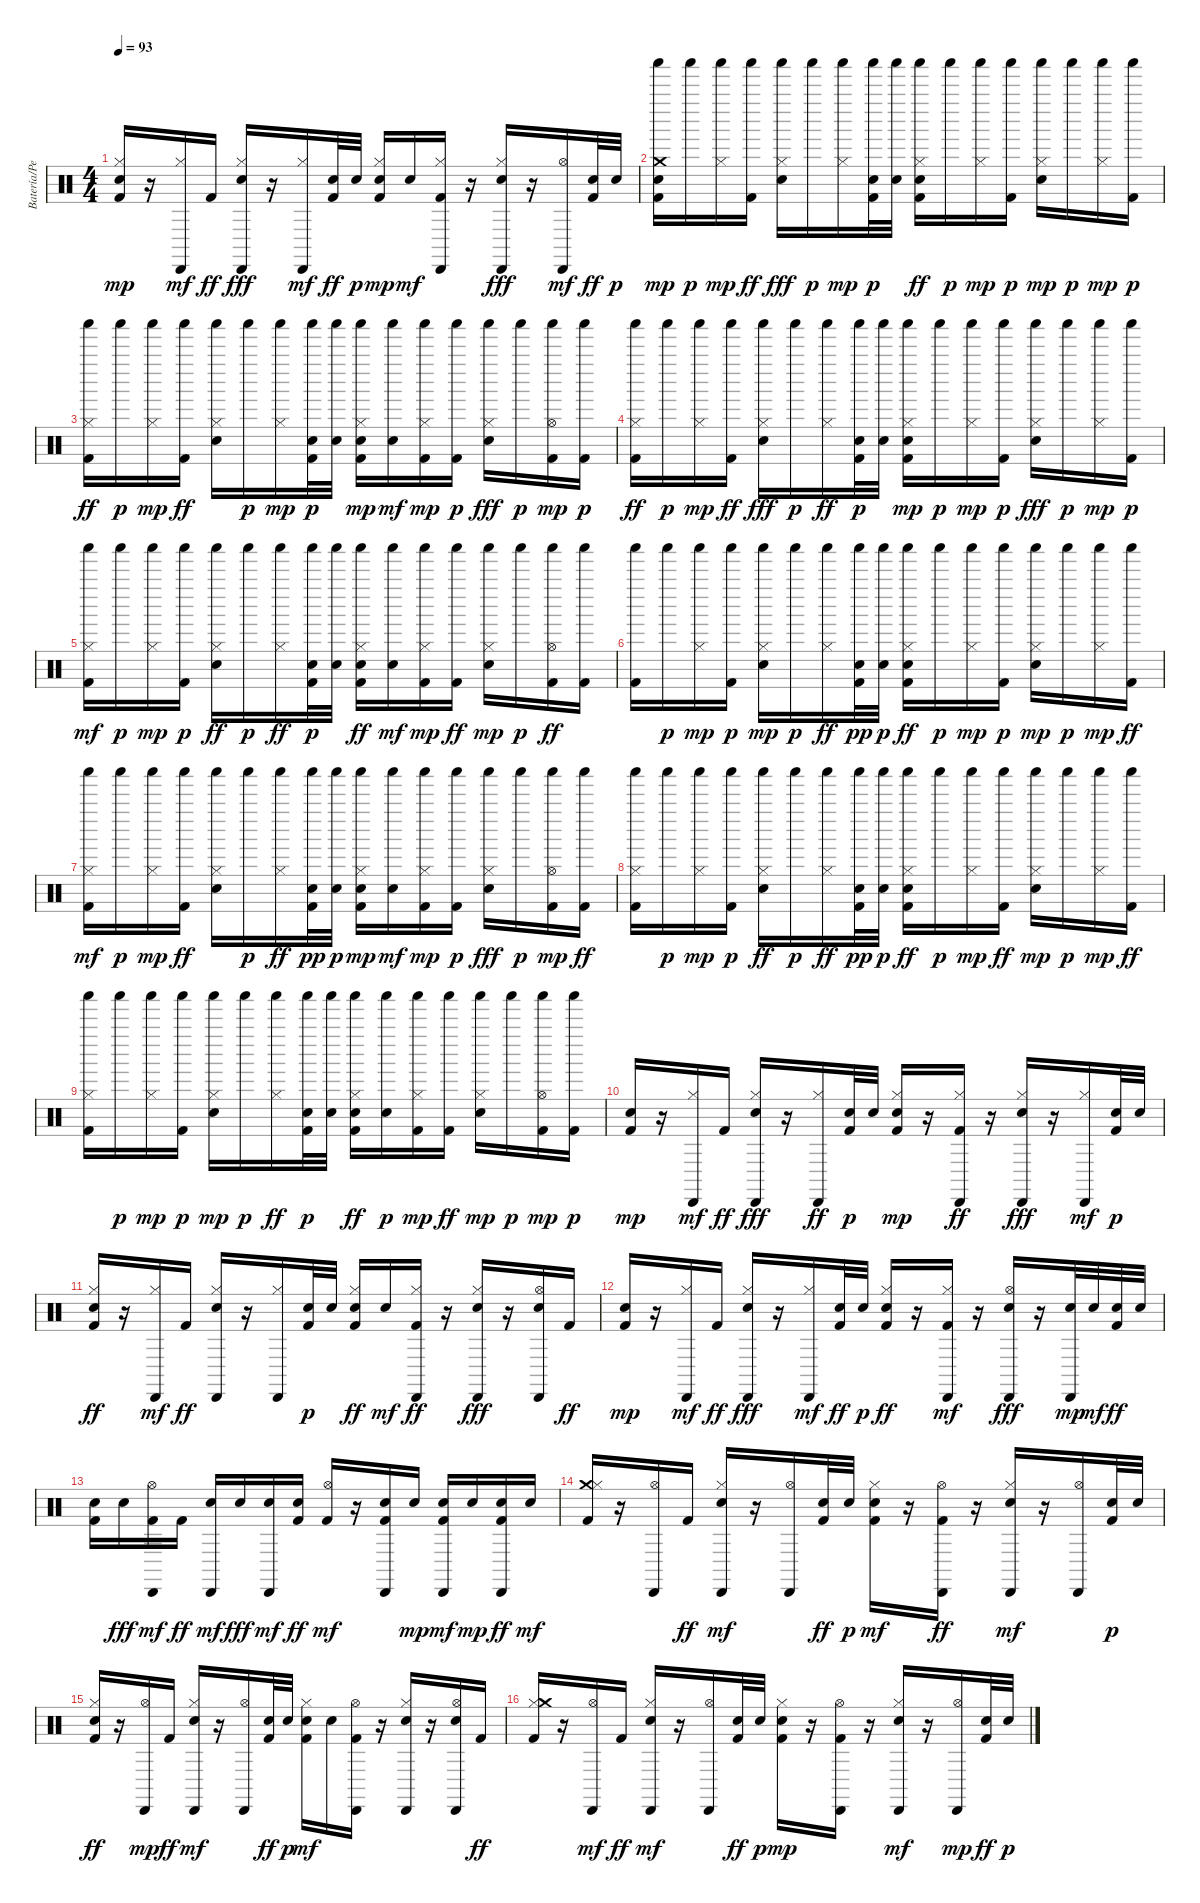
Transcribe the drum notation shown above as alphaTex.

\track ("Batería/Percusión" "Batería/Pe") {instrument percussion}
\staff {score}
\articulation defaults
\ts (4 4)
\tempo 93
\clef neutral
\ks c
("Kick (hit) 2" "Hi-Hat (closed)" "Electric Snare (hit)").16{dy mp} r.16 ("Hi-Hat (closed)" "Cabasa (hit)").16{dy mf} "Kick (hit) 2".16{dy ff} ("Cabasa (hit)" "Hi-Hat (closed)" "Electric Snare (hit)").16{dy fff} r.16 ("Hi-Hat (closed)" "Cabasa (hit)").16{dy mf} ("Electric Snare (hit)" "Kick (hit) 2").32{dy ff} "Electric Snare (hit)".32{dy p} ("Hi-Hat (closed)" "Kick (hit) 2" "Electric Snare (hit)").16{dy mp} "Electric Snare (hit)".16{dy mf} ("Kick (hit) 2" "Hi-Hat (closed)" "Cabasa (hit)").16 r.16 ("Cabasa (hit)" "Electric Snare (hit)" "Hi-Hat (closed)").16{dy fff} r.16 ("Hi-Hat (open)" "Cabasa (hit)").16{dy mf} ("Electric Snare (hit)" "Kick (hit) 2").32{dy ff} "Electric Snare (hit)".32{dy p} |
("Shaker (hit)" "Kick (hit) 2" "Crash medium (hit)" "Electric Snare (hit)").16{dy mp} "Shaker (hit)".16{dy p} ("Hi-Hat (closed)" "Shaker (hit)").16{dy mp} ("Shaker (hit)" "Kick (hit) 2").16{dy ff} ("Hi-Hat (closed)" "Shaker (hit)" "Electric Snare (hit)").16{dy fff} "Shaker (hit)".16{dy p} ("Hi-Hat (closed)" "Shaker (hit)").16{dy mp} ("Kick (hit) 2" "Shaker (hit)" "Electric Snare (hit)").32{dy p} ("Electric Snare (hit)" "Shaker (hit)").32 ("Hi-Hat (closed)" "Shaker (hit)" "Electric Snare (hit)" "Kick (hit) 2").16{dy ff} "Shaker (hit)".16{dy p} ("Shaker (hit)" "Hi-Hat (closed)").16{dy mp} ("Kick (hit) 2" "Shaker (hit)").16{dy p} ("Electric Snare (hit)" "Hi-Hat (closed)" "Shaker (hit)").16{dy mp} "Shaker (hit)".16{dy p} ("Shaker (hit)" "Hi-Hat (closed)").16{dy mp} ("Kick (hit) 2" "Shaker (hit)").16{dy p} |
("Kick (hit) 2" "Shaker (hit)" "Hi-Hat (closed)").16{dy ff} "Shaker (hit)".16{dy p} ("Hi-Hat (closed)" "Shaker (hit)").16{dy mp} ("Shaker (hit)" "Kick (hit) 2").16{dy ff} ("Shaker (hit)" "Electric Snare (hit)" "Hi-Hat (closed)").16 "Shaker (hit)".16{dy p} ("Hi-Hat (closed)" "Shaker (hit)").16{dy mp} ("Kick (hit) 2" "Shaker (hit)" "Electric Snare (hit)").32{dy p} ("Electric Snare (hit)" "Shaker (hit)").32 ("Hi-Hat (closed)" "Kick (hit) 2" "Electric Snare (hit)" "Shaker (hit)").16{dy mp} ("Shaker (hit)" "Electric Snare (hit)").16{dy mf} ("Kick (hit) 2" "Hi-Hat (closed)" "Shaker (hit)").16{dy mp} ("Kick (hit) 2" "Shaker (hit)").16{dy p} ("Shaker (hit)" "Electric Snare (hit)" "Hi-Hat (closed)").16{dy fff} "Shaker (hit)".16{dy p} ("Kick (hit) 2" "Hi-Hat (open)" "Shaker (hit)").16{dy mp} ("Kick (hit) 2" "Shaker (hit)").16{dy p} |
("Shaker (hit)" "Hi-Hat (closed)" "Kick (hit) 2").16{dy ff} "Shaker (hit)".16{dy p} ("Shaker (hit)" "Hi-Hat (closed)").16{dy mp} ("Shaker (hit)" "Kick (hit) 2").16{dy ff} ("Hi-Hat (closed)" "Shaker (hit)" "Electric Snare (hit)").16{dy fff} "Shaker (hit)".16{dy p} ("Shaker (hit)" "Hi-Hat (closed)").16{dy ff} ("Kick (hit) 2" "Shaker (hit)" "Electric Snare (hit)").32{dy p} ("Electric Snare (hit)" "Shaker (hit)").32 ("Kick (hit) 2" "Electric Snare (hit)" "Hi-Hat (closed)" "Shaker (hit)").16{dy mp} "Shaker (hit)".16{dy p} ("Hi-Hat (closed)" "Shaker (hit)").16{dy mp} ("Kick (hit) 2" "Shaker (hit)").16{dy p} ("Shaker (hit)" "Hi-Hat (closed)" "Electric Snare (hit)").16{dy fff} "Shaker (hit)".16{dy p} ("Shaker (hit)" "Hi-Hat (closed)").16{dy mp} ("Kick (hit) 2" "Shaker (hit)").16{dy p} |
("Hi-Hat (closed)" "Kick (hit) 2" "Shaker (hit)").16{dy mf} "Shaker (hit)".16{dy p} ("Hi-Hat (closed)" "Shaker (hit)").16{dy mp} ("Kick (hit) 2" "Shaker (hit)").16{dy p} ("Shaker (hit)" "Electric Snare (hit)" "Hi-Hat (closed)").16{dy ff} "Shaker (hit)".16{dy p} ("Shaker (hit)" "Hi-Hat (closed)").16{dy ff} ("Kick (hit) 2" "Shaker (hit)" "Electric Snare (hit)").32{dy p} ("Electric Snare (hit)" "Shaker (hit)").32 ("Electric Snare (hit)" "Kick (hit) 2" "Shaker (hit)" "Hi-Hat (closed)").16{dy ff} ("Shaker (hit)" "Electric Snare (hit)").16{dy mf} ("Kick (hit) 2" "Hi-Hat (closed)" "Shaker (hit)").16{dy mp} ("Shaker (hit)" "Kick (hit) 2").16{dy ff} ("Hi-Hat (closed)" "Electric Snare (hit)" "Shaker (hit)").16{dy mp} "Shaker (hit)".16{dy p} ("Shaker (hit)" "Hi-Hat (open)" "Kick (hit) 2").16{dy ff} ("Shaker (hit)" "Kick (hit) 2").16 |
("Shaker (hit)" "Kick (hit) 2").16 "Shaker (hit)".16{dy p} ("Hi-Hat (closed)" "Shaker (hit)").16{dy mp} ("Kick (hit) 2" "Shaker (hit)").16{dy p} ("Hi-Hat (closed)" "Electric Snare (hit)" "Shaker (hit)").16{dy mp} "Shaker (hit)".16{dy p} ("Shaker (hit)" "Hi-Hat (closed)").16{dy ff} ("Kick (hit) 2" "Electric Snare (hit)" "Shaker (hit)").32{dy pp} ("Shaker (hit)" "Electric Snare (hit)").32{dy p} ("Electric Snare (hit)" "Shaker (hit)" "Kick (hit) 2" "Hi-Hat (closed)").16{dy ff} "Shaker (hit)".16{dy p} ("Hi-Hat (closed)" "Shaker (hit)").16{dy mp} ("Kick (hit) 2" "Shaker (hit)").16{dy p} ("Hi-Hat (closed)" "Electric Snare (hit)" "Shaker (hit)").16{dy mp} "Shaker (hit)".16{dy p} ("Hi-Hat (closed)" "Shaker (hit)").16{dy mp} ("Shaker (hit)" "Kick (hit) 2").16{dy ff} |
("Hi-Hat (closed)" "Kick (hit) 2" "Shaker (hit)").16{dy mf} "Shaker (hit)".16{dy p} ("Shaker (hit)" "Hi-Hat (closed)").16{dy mp} ("Shaker (hit)" "Kick (hit) 2").16{dy ff} ("Shaker (hit)" "Electric Snare (hit)" "Hi-Hat (closed)").16 "Shaker (hit)".16{dy p} ("Shaker (hit)" "Hi-Hat (closed)").16{dy ff} ("Electric Snare (hit)" "Kick (hit) 2" "Shaker (hit)").32{dy pp} ("Shaker (hit)" "Electric Snare (hit)").32{dy p} ("Hi-Hat (closed)" "Electric Snare (hit)" "Kick (hit) 2" "Shaker (hit)").16{dy mp} ("Shaker (hit)" "Electric Snare (hit)").16{dy mf} ("Kick (hit) 2" "Hi-Hat (closed)" "Shaker (hit)").16{dy mp} ("Kick (hit) 2" "Shaker (hit)").16{dy p} ("Shaker (hit)" "Electric Snare (hit)" "Hi-Hat (closed)").16{dy fff} "Shaker (hit)".16{dy p} ("Kick (hit) 2" "Hi-Hat (open)" "Shaker (hit)").16{dy mp} ("Shaker (hit)" "Kick (hit) 2").16{dy ff} |
("Hi-Hat (closed)" "Shaker (hit)" "Kick (hit) 2").16 "Shaker (hit)".16{dy p} ("Hi-Hat (closed)" "Shaker (hit)").16{dy mp} ("Kick (hit) 2" "Shaker (hit)").16{dy p} ("Shaker (hit)" "Electric Snare (hit)" "Hi-Hat (closed)").16{dy ff} "Shaker (hit)".16{dy p} ("Shaker (hit)" "Hi-Hat (closed)").16{dy ff} ("Kick (hit) 2" "Electric Snare (hit)" "Shaker (hit)").32{dy pp} ("Electric Snare (hit)" "Shaker (hit)").32{dy p} ("Electric Snare (hit)" "Hi-Hat (closed)" "Shaker (hit)" "Kick (hit) 2").16{dy ff} "Shaker (hit)".16{dy p} ("Hi-Hat (closed)" "Shaker (hit)").16{dy mp} ("Shaker (hit)" "Kick (hit) 2").16{dy ff} ("Hi-Hat (closed)" "Electric Snare (hit)" "Shaker (hit)").16{dy mp} "Shaker (hit)".16{dy p} ("Shaker (hit)" "Hi-Hat (closed)").16{dy mp} ("Shaker (hit)" "Kick (hit) 2").16{dy ff} |
("Hi-Hat (closed)" "Shaker (hit)" "Kick (hit) 2").16 "Shaker (hit)".16{dy p} ("Shaker (hit)" "Hi-Hat (closed)").16{dy mp} ("Kick (hit) 2" "Shaker (hit)").16{dy p} ("Hi-Hat (closed)" "Electric Snare (hit)" "Shaker (hit)").16{dy mp} "Shaker (hit)".16{dy p} ("Shaker (hit)" "Hi-Hat (closed)").16{dy ff} ("Shaker (hit)" "Kick (hit) 2" "Electric Snare (hit)").32{dy p} ("Electric Snare (hit)" "Shaker (hit)").32 ("Kick (hit) 2" "Shaker (hit)" "Electric Snare (hit)" "Hi-Hat (closed)").16{dy ff} ("Electric Snare (hit)" "Shaker (hit)").16{dy p} ("Hi-Hat (closed)" "Kick (hit) 2" "Shaker (hit)").16{dy mp} ("Shaker (hit)" "Kick (hit) 2").16{dy ff} ("Hi-Hat (closed)" "Electric Snare (hit)" "Shaker (hit)").16{dy mp} "Shaker (hit)".16{dy p} ("Hi-Hat (open)" "Kick (hit) 2" "Shaker (hit)").16{dy mp} ("Kick (hit) 2" "Shaker (hit)").16{dy p} |
("Kick (hit) 2" "Electric Snare (hit)").16{dy mp} r.16 ("Hi-Hat (closed)" "Cabasa (hit)").16{dy mf} "Kick (hit) 2".16{dy ff} ("Hi-Hat (closed)" "Cabasa (hit)" "Electric Snare (hit)").16{dy fff} r.16 ("Cabasa (hit)" "Hi-Hat (closed)").16{dy ff} ("Kick (hit) 2" "Electric Snare (hit)").32{dy p} "Electric Snare (hit)".32 ("Hi-Hat (closed)" "Kick (hit) 2" "Electric Snare (hit)").16{dy mp} r.16 ("Hi-Hat (closed)" "Cabasa (hit)" "Kick (hit) 2").16{dy ff} r.16 ("Hi-Hat (closed)" "Cabasa (hit)" "Electric Snare (hit)").16{dy fff} r.16 ("Hi-Hat (closed)" "Cabasa (hit)").16{dy mf} ("Kick (hit) 2" "Electric Snare (hit)").32{dy p} "Electric Snare (hit)".32 |
("Kick (hit) 2" "Electric Snare (hit)" "Hi-Hat (closed)").16{dy ff} r.16 ("Cabasa (hit)" "Hi-Hat (closed)").16{dy mf} "Kick (hit) 2".16{dy ff} ("Cabasa (hit)" "Electric Snare (hit)" "Hi-Hat (closed)").16 r.16 ("Cabasa (hit)" "Hi-Hat (closed)").16 ("Kick (hit) 2" "Electric Snare (hit)").32{dy p} "Electric Snare (hit)".32 ("Hi-Hat (closed)" "Electric Snare (hit)" "Kick (hit) 2").16{dy ff} "Electric Snare (hit)".16{dy mf} ("Cabasa (hit)" "Hi-Hat (closed)" "Kick (hit) 2").16{dy ff} r.16 ("Hi-Hat (closed)" "Cabasa (hit)" "Electric Snare (hit)").16{dy fff} r.16 ("Hi-Hat (open)" "Cabasa (hit)" "Electric Snare (hit)").16 "Kick (hit) 2".16{dy ff} |
("Kick (hit) 2" "Electric Snare (hit)").16{dy mp} r.16 ("Cabasa (hit)" "Hi-Hat (closed)").16{dy mf} "Kick (hit) 2".16{dy ff} ("Hi-Hat (closed)" "Cabasa (hit)" "Electric Snare (hit)").16{dy fff} r.16 ("Hi-Hat (closed)" "Cabasa (hit)").16{dy mf} ("Electric Snare (hit)" "Kick (hit) 2").32{dy ff} "Electric Snare (hit)".32{dy p} ("Electric Snare (hit)" "Kick (hit) 2" "Hi-Hat (closed)").16{dy ff} r.16 ("Kick (hit) 2" "Cabasa (hit)" "Hi-Hat (closed)").16{dy mf} r.16 ("Cabasa (hit)" "Hi-Hat (open)" "Electric Snare (hit)").16{dy fff} r.16 ("Cabasa (hit)" "Electric Snare (hit)").32{dy mp} "Electric Snare (hit)".32{dy mf} ("Kick (hit) 2" "Electric Snare (hit)").32{dy ff} "Electric Snare (hit)".32 |
("Electric Snare (hit)" "Kick (hit) 2").16 "Electric Snare (hit)".16{dy fff} ("Kick (hit) 2" "Hi-Hat (open)" "Cabasa (hit)").16{dy mf} "Kick (hit) 2".16{dy ff} ("Electric Snare (hit)" "Cabasa (hit)").16{dy mf} "Electric Snare (hit)".16{dy fff} ("Electric Snare (hit)" "Cabasa (hit)").16{dy mf} ("Electric Snare (hit)" "Kick (hit) 2").16{dy ff} ("Kick (hit) 2" "Hi-Hat (open)").16{dy mf} r.16 ("Electric Snare (hit)" "Kick (hit) 2" "Cabasa (hit)").16 "Electric Snare (hit)".16{dy mp} ("Kick (hit) 2" "Electric Snare (hit)" "Cabasa (hit)").16{dy mf} "Electric Snare (hit)".16{dy mp} ("Electric Snare (hit)" "Cabasa (hit)" "Kick (hit) 2").16{dy ff} "Electric Snare (hit)".16{dy mf} |
("Kick (hit) 2" "Crash medium (hit)" "Hi-Hat (closed)").16 r.16 ("Cabasa (hit)" "Hi-Hat (open)").16 "Kick (hit) 2".16{dy ff} ("Electric Snare (hit)" "Hi-Hat (closed)" "Cabasa (hit)").16{dy mf} r.16 ("Cabasa (hit)" "Hi-Hat (open)").16 ("Electric Snare (hit)" "Kick (hit) 2").32{dy ff} "Electric Snare (hit)".32{dy p} ("Electric Snare (hit)" "Kick (hit) 2" "Hi-Hat (closed)").16{dy mf} r.16 ("Cabasa (hit)" "Hi-Hat (open)" "Kick (hit) 2").16{dy ff} r.16 ("Hi-Hat (closed)" "Electric Snare (hit)" "Cabasa (hit)").16{dy mf} r.16 ("Cabasa (hit)" "Hi-Hat (open)").16 ("Kick (hit) 2" "Electric Snare (hit)").32{dy p} "Electric Snare (hit)".32 |
("Hi-Hat (closed)" "Electric Snare (hit)" "Kick (hit) 2").16{dy ff} r.16 ("Cabasa (hit)" "Hi-Hat (open)").16{dy mp} "Kick (hit) 2".16{dy ff} ("Cabasa (hit)" "Electric Snare (hit)" "Hi-Hat (closed)").16{dy mf} r.16 ("Cabasa (hit)" "Hi-Hat (open)").16 ("Electric Snare (hit)" "Kick (hit) 2").32{dy ff} "Electric Snare (hit)".32{dy p} ("Kick (hit) 2" "Electric Snare (hit)" "Hi-Hat (closed)").16{dy mf} "Electric Snare (hit)".16 ("Hi-Hat (open)" "Kick (hit) 2" "Cabasa (hit)").16 r.16 ("Hi-Hat (closed)" "Electric Snare (hit)" "Cabasa (hit)").16 r.16 ("Electric Snare (hit)" "Cabasa (hit)" "Hi-Hat (open)").16 "Kick (hit) 2".16{dy ff} |
("Hi-Hat (closed)" "Kick (hit) 2" "Crash medium (hit)").16 r.16 ("Cabasa (hit)" "Hi-Hat (open)").16{dy mf} "Kick (hit) 2".16{dy ff} ("Electric Snare (hit)" "Cabasa (hit)" "Hi-Hat (closed)").16{dy mf} r.16 ("Hi-Hat (open)" "Cabasa (hit)").16 ("Electric Snare (hit)" "Kick (hit) 2").32{dy ff} "Electric Snare (hit)".32{dy p} ("Kick (hit) 2" "Hi-Hat (closed)" "Electric Snare (hit)").16{dy mp} r.16 ("Kick (hit) 2" "Cabasa (hit)" "Hi-Hat (open)").16 r.16 ("Electric Snare (hit)" "Cabasa (hit)" "Hi-Hat (closed)").16{dy mf} r.16 ("Cabasa (hit)" "Hi-Hat (open)").16{dy mp} ("Electric Snare (hit)" "Kick (hit) 2").32{dy ff} "Electric Snare (hit)".32{dy p}
